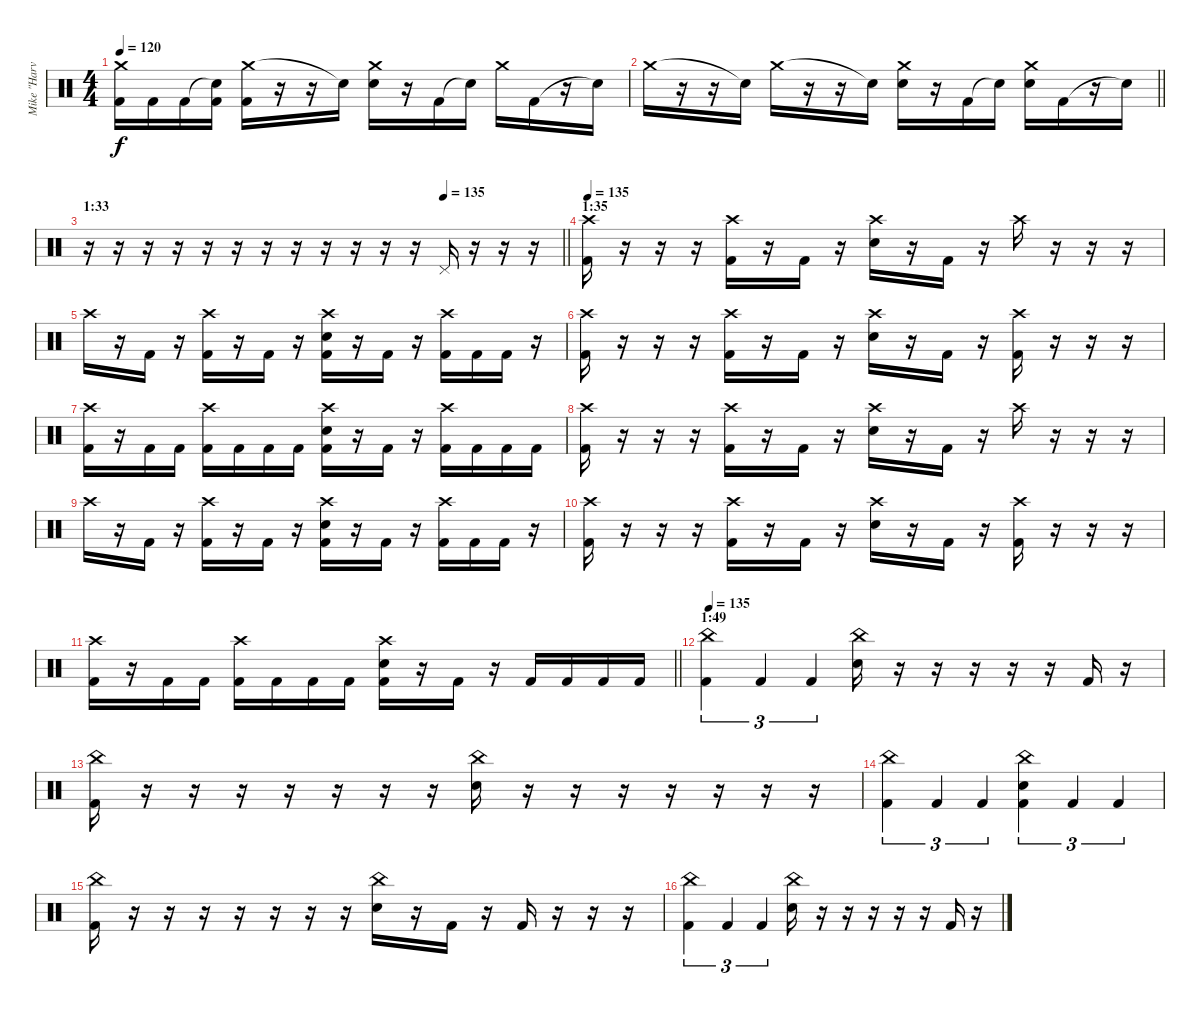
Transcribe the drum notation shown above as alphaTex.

\track ("Mike \"Harvey\" Kaabe" "Mike \"Harv") {instrument percussion}
\staff {score}
\articulation defaults
\ts (4 4)
\tempo 120
\clef neutral
\ks c
("Crash medium (hit)" "Kick (hit) 2").16{dy f} "Kick (hit) 2".16 "Kick (hit) 2".16 ("Snare (hit)"{t} "Kick (hit) 2").16 ("Crash medium (hit)" "Kick (hit) 2").16 r.16 r.16 "Snare (hit)"{t}.16 ("Crash medium (hit)" "Electric Snare (hit)").16 r.16 "Kick (hit) 2".16 "Snare (hit)"{t}.16 "Crash medium (hit)".16 "Kick (hit) 2".16 r.16 "Snare (hit)"{t}.16 |
\barLineRight lightlight "Crash medium (hit)".16
r.16 r.16 "Snare (hit)"{t}.16 "Crash medium (hit)".16 r.16 r.16 "Snare (hit)"{t}.16 ("Crash medium (hit)" "Electric Snare (hit)").16 r.16 "Kick (hit) 2".16 "Snare (hit)"{t}.16 ("Crash medium (hit)" "Electric Snare (hit)").16 "Kick (hit) 2".16 r.16 "Snare (hit)"{t}.16 |
\section ("" "1:33")
\tempo (135 0.75)
\barLineRight lightlight
r.16 r.16 r.16 r.16 r.16 r.16 r.16 r.16 r.16 r.16 r.16 r.16 "Pedal Hi-Hat (hit)".16 r.16 r.16 r.16 |
\section ("" "1:35")
\tempo 135
("Crash high (hit)" "Kick (hit) 2").16 r.16 r.16 r.16 ("Crash high (hit)" "Kick (hit) 2").16 r.16 "Kick (hit) 2".16 r.16 ("Crash high (hit)" "Electric Snare (hit)").16 r.16 "Kick (hit) 2".16 r.16 "Crash high (hit)".16 r.16 r.16 r.16 |
"Crash high (hit)".16 r.16 "Kick (hit) 2".16 r.16 ("Crash high (hit)" "Kick (hit) 2").16 r.16 "Kick (hit) 2".16 r.16 ("Crash high (hit)" "Electric Snare (hit)" "Kick (hit) 2").16 r.16 "Kick (hit) 2".16 r.16 ("Crash high (hit)" "Kick (hit) 2").16 "Kick (hit) 2".16 "Kick (hit) 2".16 r.16 |
("Crash high (hit)" "Kick (hit) 2").16 r.16 r.16 r.16 ("Crash high (hit)" "Kick (hit) 2").16 r.16 "Kick (hit) 2".16 r.16 ("Crash high (hit)" "Electric Snare (hit)").16 r.16 "Kick (hit) 2".16 r.16 ("Crash high (hit)" "Kick (hit) 2").16 r.16 r.16 r.16 |
("Crash high (hit)" "Kick (hit) 2").16 r.16 "Kick (hit) 2".16 "Kick (hit) 2".16 ("Crash high (hit)" "Kick (hit) 2").16 "Kick (hit) 2".16 "Kick (hit) 2".16 "Kick (hit) 2".16 ("Crash high (hit)" "Electric Snare (hit)" "Kick (hit) 2").16 r.16 "Kick (hit) 2".16 r.16 ("Crash high (hit)" "Kick (hit) 2").16 "Kick (hit) 2".16 "Kick (hit) 2".16 "Kick (hit) 2".16 |
("Crash high (hit)" "Kick (hit) 2").16 r.16 r.16 r.16 ("Crash high (hit)" "Kick (hit) 2").16 r.16 "Kick (hit) 2".16 r.16 ("Crash high (hit)" "Electric Snare (hit)").16 r.16 "Kick (hit) 2".16 r.16 "Crash high (hit)".16 r.16 r.16 r.16 |
"Crash high (hit)".16 r.16 "Kick (hit) 2".16 r.16 ("Crash high (hit)" "Kick (hit) 2").16 r.16 "Kick (hit) 2".16 r.16 ("Crash high (hit)" "Electric Snare (hit)" "Kick (hit) 2").16 r.16 "Kick (hit) 2".16 r.16 ("Crash high (hit)" "Kick (hit) 2").16 "Kick (hit) 2".16 "Kick (hit) 2".16 r.16 |
("Crash high (hit)" "Kick (hit) 2").16 r.16 r.16 r.16 ("Crash high (hit)" "Kick (hit) 2").16 r.16 "Kick (hit) 2".16 r.16 ("Crash high (hit)" "Electric Snare (hit)").16 r.16 "Kick (hit) 2".16 r.16 ("Crash high (hit)" "Kick (hit) 2").16 r.16 r.16 r.16 |
\barLineRight lightlight
("Crash high (hit)" "Kick (hit) 2").16 r.16 "Kick (hit) 2".16 "Kick (hit) 2".16 ("Crash high (hit)" "Kick (hit) 2").16 "Kick (hit) 2".16 "Kick (hit) 2".16 "Kick (hit) 2".16 ("Crash high (hit)" "Electric Snare (hit)" "Kick (hit) 2").16 r.16 "Kick (hit) 2".16 r.16 "Kick (hit) 2".16 "Kick (hit) 2".16 "Kick (hit) 2".16 "Kick (hit) 2".16 |
\section ("" "1:49")
\tempo 135
("China (hit)" "Kick (hit) 2").4{tu (3 2)} "Kick (hit) 2".4{tu (3 2)} "Kick (hit) 2".4{tu (3 2)} ("China (hit)" "Electric Snare (hit)").16 r.16 r.16 r.16 r.16 r.16 "Kick (hit) 2".16 r.16 |
("China (hit)" "Kick (hit) 2").16 r.16 r.16 r.16 r.16 r.16 r.16 r.16 ("China (hit)" "Electric Snare (hit)").16 r.16 r.16 r.16 r.16 r.16 r.16 r.16 |
("China (hit)" "Kick (hit) 2").4{tu (3 2)} "Kick (hit) 2".4{tu (3 2)} "Kick (hit) 2".4{tu (3 2)} ("China (hit)" "Electric Snare (hit)" "Kick (hit) 2").4{tu (3 2)} "Kick (hit) 2".4{tu (3 2)} "Kick (hit) 2".4{tu (3 2)} |
("China (hit)" "Kick (hit) 2").16 r.16 r.16 r.16 r.16 r.16 r.16 r.16 ("China (hit)" "Electric Snare (hit)").16 r.16 "Kick (hit) 2".16 r.16 "Kick (hit) 2".16 r.16 r.16 r.16 |
("China (hit)" "Kick (hit) 2").4{tu (3 2)} "Kick (hit) 2".4{tu (3 2)} "Kick (hit) 2".4{tu (3 2)} ("China (hit)" "Electric Snare (hit)").16 r.16 r.16 r.16 r.16 r.16 "Kick (hit) 2".16 r.16
